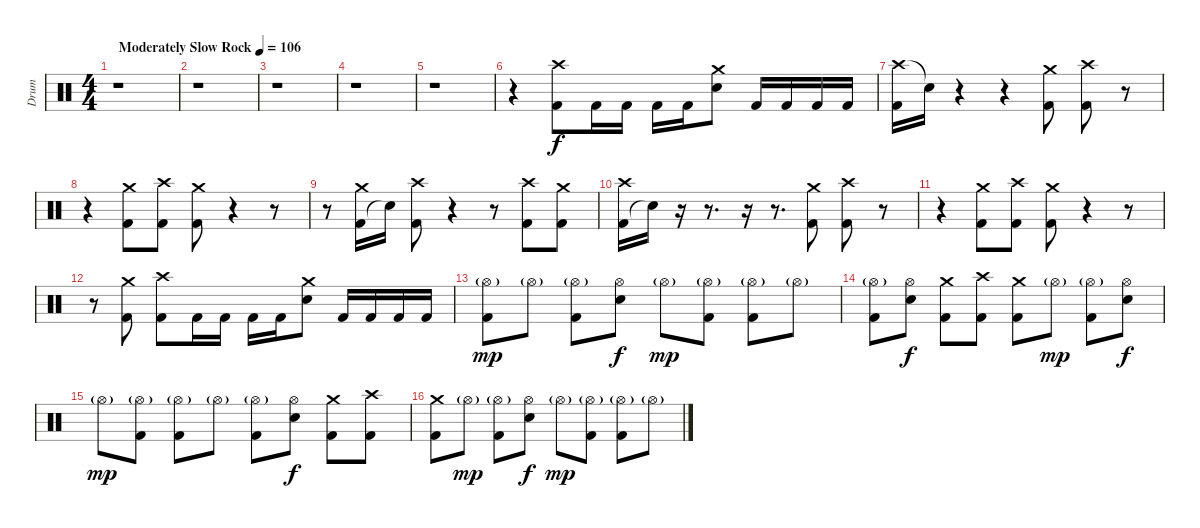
\track ("Drum" "Drum") {instrument percussion}
\staff {score}
\articulation defaults
\ts (4 4)
\tempo (106 "Moderately Slow Rock")
\clef neutral
\ks c
r.1{dy f} |
r.1 |
r.1 |
r.1 |
r.1 |
r.4 ("Crash high (hit)" "Kick (hit) 2").8 "Kick (hit) 2".16 "Kick (hit) 2".16 "Kick (hit) 2".16 "Kick (hit) 2".16 ("Crash medium (hit)" "Electric Snare (hit)").8 "Kick (hit) 2".16 "Kick (hit) 2".16 "Kick (hit) 2".16 "Kick (hit) 2".16 |
("Crash high (hit)" "Kick (hit) 2").16 "Snare (hit)"{t}.16 r.4 r.4 ("Kick (hit) 2" "Crash medium (hit)").8 ("Kick (hit) 2" "Crash high (hit)").8 r.8 |
r.4 ("Kick (hit) 2" "Crash medium (hit)").8 ("Kick (hit) 2" "Crash high (hit)").8 ("Kick (hit) 2" "Crash medium (hit)").8 r.4 r.8 |
r.8 ("Kick (hit) 2" "Crash medium (hit)").16 "Snare (hit)"{t}.16 ("Kick (hit) 2" "Crash high (hit)").8 r.4 r.8 ("Kick (hit) 2" "Crash high (hit)").8 ("Kick (hit) 2" "Crash medium (hit)").8 |
("Kick (hit) 2" "Crash high (hit)").16 "Snare (hit)"{t}.16 r.16 r.8{d} r.16 r.8{d} ("Kick (hit) 2" "Crash medium (hit)").8 ("Kick (hit) 2" "Crash high (hit)").8 r.8 |
r.4 ("Kick (hit) 2" "Crash medium (hit)").8 ("Kick (hit) 2" "Crash high (hit)").8 ("Kick (hit) 2" "Crash medium (hit)").8 r.4 r.8 |
r.8 ("Crash medium (hit)" "Kick (hit) 2").8 ("Crash high (hit)" "Kick (hit) 2").8 "Kick (hit) 2".16 "Kick (hit) 2".16 "Kick (hit) 2".16 "Kick (hit) 2".16 ("Crash medium (hit)" "Electric Snare (hit)").8 "Kick (hit) 2".16 "Kick (hit) 2".16 "Kick (hit) 2".16 "Kick (hit) 2".16 |
("Hi-Hat (open)"{g} "Kick (hit) 2").8{dy mp} "Hi-Hat (open)"{g}.8 ("Hi-Hat (open)"{g} "Kick (hit) 2").8 ("Hi-Hat (open)" "Electric Snare (hit)").8{dy f} "Hi-Hat (open)"{g}.8{dy mp} ("Hi-Hat (open)"{g} "Kick (hit) 2").8 ("Hi-Hat (open)"{g} "Kick (hit) 2").8 "Hi-Hat (open)"{g}.8 |
("Hi-Hat (open)"{g} "Kick (hit) 2").8 ("Hi-Hat (open)" "Electric Snare (hit)").8{dy f} ("Crash medium (hit)" "Kick (hit) 2").8 ("Crash high (hit)" "Kick (hit) 2").8 ("Crash medium (hit)" "Kick (hit) 2").8 "Hi-Hat (open)"{g}.8{dy mp} ("Hi-Hat (open)"{g} "Kick (hit) 2").8 ("Hi-Hat (open)" "Electric Snare (hit)").8{dy f} |
"Hi-Hat (open)"{g}.8{dy mp} ("Hi-Hat (open)"{g} "Kick (hit) 2").8 ("Hi-Hat (open)"{g} "Kick (hit) 2").8 "Hi-Hat (open)"{g}.8 ("Hi-Hat (open)"{g} "Kick (hit) 2").8 ("Hi-Hat (open)" "Electric Snare (hit)").8{dy f} ("Crash medium (hit)" "Kick (hit) 2").8 ("Crash high (hit)" "Kick (hit) 2").8 |
("Crash medium (hit)" "Kick (hit) 2").8 "Hi-Hat (open)"{g}.8{dy mp} ("Hi-Hat (open)"{g} "Kick (hit) 2").8 ("Hi-Hat (open)" "Electric Snare (hit)").8{dy f} "Hi-Hat (open)"{g}.8{dy mp} ("Hi-Hat (open)"{g} "Kick (hit) 2").8 ("Hi-Hat (open)"{g} "Kick (hit) 2").8 "Hi-Hat (open)"{g}.8
